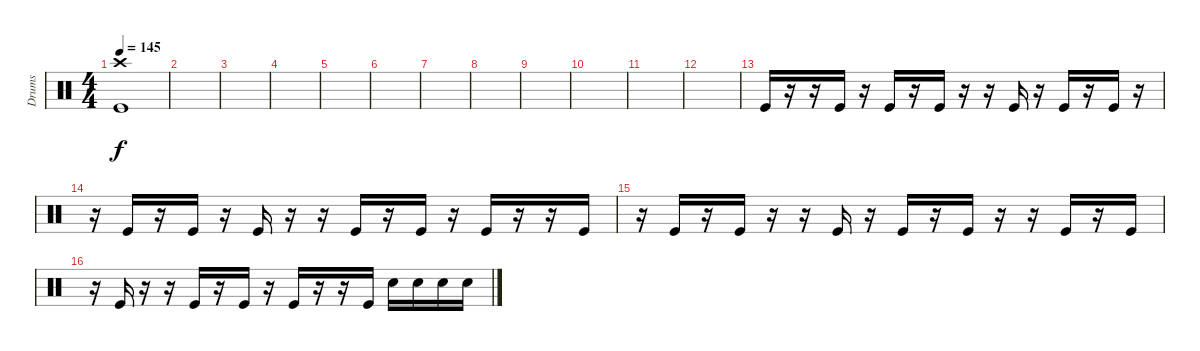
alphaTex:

\track ("Drums" "Drums") {instrument percussion}
\staff {score}
\articulation defaults
\ts (4 4)
\tempo 145
\clef neutral
\ks c
("Crash high (hit)" "Kick (hit)").1{dy f} |
|
|
|
|
|
|
|
|
|
|
|
"Kick (hit)".16 r.16 r.16 "Kick (hit)".16 r.16 "Kick (hit)".16 r.16 "Kick (hit)".16 r.16 r.16 "Kick (hit)".16 r.16 "Kick (hit)".16 r.16 "Kick (hit)".16 r.16 |
r.16 "Kick (hit)".16 r.16 "Kick (hit)".16 r.16 "Kick (hit)".16 r.16 r.16 "Kick (hit)".16 r.16 "Kick (hit)".16 r.16 "Kick (hit)".16 r.16 r.16 "Kick (hit)".16 |
r.16 "Kick (hit)".16 r.16 "Kick (hit)".16 r.16 r.16 "Kick (hit)".16 r.16 "Kick (hit)".16 r.16 "Kick (hit)".16 r.16 r.16 "Kick (hit)".16 r.16 "Kick (hit)".16 |
r.16 "Kick (hit)".16 r.16 r.16 "Kick (hit)".16 r.16 "Kick (hit)".16 r.16 "Kick (hit)".16 r.16 r.16 "Kick (hit)".16 "Electric Snare (hit)".16 "Electric Snare (hit)".16 "Electric Snare (hit)".16 "Electric Snare (hit)".16
